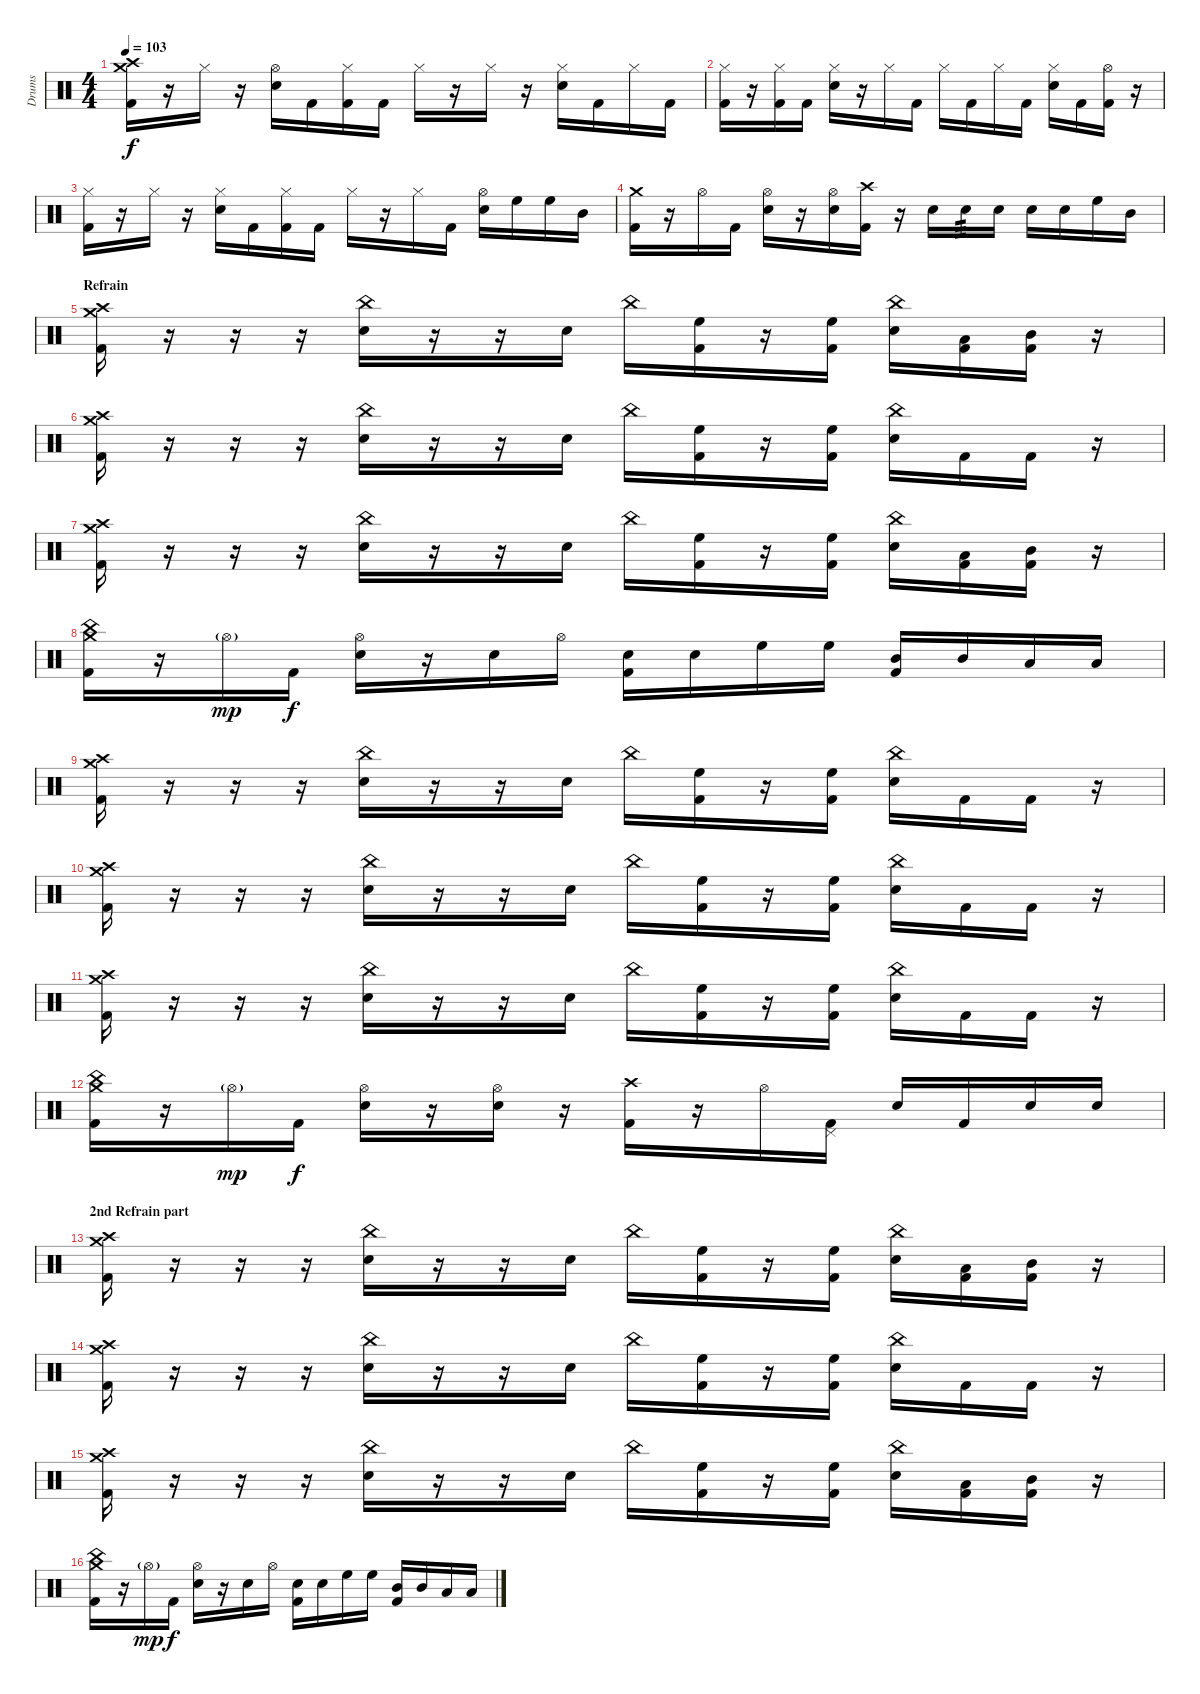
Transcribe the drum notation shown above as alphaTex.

\track ("Drums" "Drums") {instrument percussion}
\staff {score}
\articulation defaults
\ts (4 4)
\tempo 103
\clef neutral
\ks c
("Crash high (hit)" "Crash medium (hit)" "Kick (hit) 2").16{dy f} r.16 "Hi-Hat (closed)".16 r.16 ("Hi-Hat (open)" "Snare (hit) 2").16 "Kick (hit) 2".16 ("Hi-Hat (closed)" "Kick (hit) 2").16 "Kick (hit) 2".16 "Hi-Hat (closed)".16 r.16 "Hi-Hat (closed)".16 r.16 ("Hi-Hat (closed)" "Snare (hit) 2").16 "Kick (hit) 2".16 "Hi-Hat (closed)".16 "Kick (hit) 2".16 |
("Hi-Hat (closed)" "Kick (hit) 2").16 r.16 ("Hi-Hat (closed)" "Kick (hit) 2").16 "Kick (hit) 2".16 ("Hi-Hat (closed)" "Snare (hit) 2").16 r.16 "Hi-Hat (closed)".16 "Kick (hit) 2".16 "Hi-Hat (closed)".16 "Kick (hit) 2".16 "Hi-Hat (closed)".16 "Kick (hit) 2".16 ("Hi-Hat (closed)" "Snare (hit) 2").16 "Kick (hit) 2".16 ("Hi-Hat (open)" "Kick (hit) 2").16 r.16 |
("Hi-Hat (closed)" "Kick (hit) 2").16 r.16 "Hi-Hat (closed)".16 r.16 ("Hi-Hat (closed)" "Snare (hit) 2").16 "Kick (hit) 2".16 ("Hi-Hat (closed)" "Kick (hit) 2").16 "Kick (hit) 2".16 "Hi-Hat (closed)".16 r.16 "Hi-Hat (closed)".16 "Kick (hit) 2".16 ("Hi-Hat (open)" "Snare (hit) 2").16 "High Floor Tom (hit)".16 "High Floor Tom (hit)".16 "Mid Tom (hit)".16 |
("Crash medium (hit)" "Kick (hit) 2").16 r.16 "Hi-Hat (open)".16 "Kick (hit) 2".16 ("Hi-Hat (open)" "Snare (hit) 2").16 r.16 ("Hi-Hat (open)" "Snare (hit) 2").16 ("Crash high (hit)" "Kick (hit) 2").16 r.16 "Snare (hit) 2".16 "Snare (hit) 2".16{tp 3} "Snare (hit) 2".16 "Snare (hit) 2".16 "Snare (hit) 2".16 "High Floor Tom (hit)".16 "Mid Tom (hit)".16 |
\section ("" "Refrain")
("Crash medium (hit)" "Crash high (hit)" "Kick (hit) 2").16 r.16 r.16 r.16 ("China (hit)" "Snare (hit) 2").16 r.16 r.16 "Snare (hit) 2".16 "China (hit)".16 ("High Floor Tom (hit)" "Kick (hit) 2").16 r.16 ("High Floor Tom (hit)" "Kick (hit) 2").16 ("China (hit)" "Snare (hit) 2").16 ("Low Tom (hit)" "Kick (hit) 2").16 ("Mid Tom (hit)" "Kick (hit) 2").16 r.16 |
("Crash medium (hit)" "Crash high (hit)" "Kick (hit) 2").16 r.16 r.16 r.16 ("China (hit)" "Snare (hit) 2").16 r.16 r.16 "Snare (hit) 2".16 "China (hit)".16 ("High Floor Tom (hit)" "Kick (hit) 2").16 r.16 ("High Floor Tom (hit)" "Kick (hit) 2").16 ("China (hit)" "Snare (hit) 2").16 "Kick (hit) 2".16 "Kick (hit) 2".16 r.16 |
("Crash medium (hit)" "Crash high (hit)" "Kick (hit) 2").16 r.16 r.16 r.16 ("China (hit)" "Snare (hit) 2").16 r.16 r.16 "Snare (hit) 2".16 "China (hit)".16 ("High Floor Tom (hit)" "Kick (hit) 2").16 r.16 ("High Floor Tom (hit)" "Kick (hit) 2").16 ("China (hit)" "Snare (hit) 2").16 ("Low Tom (hit)" "Kick (hit) 2").16 ("Mid Tom (hit)" "Kick (hit) 2").16 r.16 |
("Crash medium (hit)" "China (hit)" "Kick (hit) 2").16 r.16 "Hi-Hat (open)"{g}.16{dy mp} "Kick (hit) 2".16{dy f} ("Hi-Hat (open)" "Snare (hit) 2").16 r.16 "Snare (hit) 2".16 "Hi-Hat (open)".16 ("Snare (hit) 2" "Kick (hit) 2").16 "Snare (hit) 2".16 "High Floor Tom (hit)".16 "High Floor Tom (hit)".16 ("Mid Tom (hit)" "Kick (hit) 2").16 "Mid Tom (hit)".16 "Low Tom (hit)".16 "Low Tom (hit)".16 |
("Crash medium (hit)" "Crash high (hit)" "Kick (hit) 2").16 r.16 r.16 r.16 ("China (hit)" "Snare (hit) 2").16 r.16 r.16 "Snare (hit) 2".16 "China (hit)".16 ("High Floor Tom (hit)" "Kick (hit) 2").16 r.16 ("High Floor Tom (hit)" "Kick (hit) 2").16 ("China (hit)" "Snare (hit) 2").16 "Kick (hit) 2".16 "Kick (hit) 2".16 r.16 |
("Crash medium (hit)" "Crash high (hit)" "Kick (hit) 2").16 r.16 r.16 r.16 ("China (hit)" "Snare (hit) 2").16 r.16 r.16 "Snare (hit) 2".16 "China (hit)".16 ("High Floor Tom (hit)" "Kick (hit) 2").16 r.16 ("High Floor Tom (hit)" "Kick (hit) 2").16 ("China (hit)" "Snare (hit) 2").16 "Kick (hit) 2".16 "Kick (hit) 2".16 r.16 |
("Crash medium (hit)" "Crash high (hit)" "Kick (hit) 2").16 r.16 r.16 r.16 ("China (hit)" "Snare (hit) 2").16 r.16 r.16 "Snare (hit) 2".16 "China (hit)".16 ("High Floor Tom (hit)" "Kick (hit) 2").16 r.16 ("High Floor Tom (hit)" "Kick (hit) 2").16 ("China (hit)" "Snare (hit) 2").16 "Kick (hit) 2".16 "Kick (hit) 2".16 r.16 |
("Crash medium (hit)" "China (hit)" "Kick (hit) 2").16 r.16 "Hi-Hat (open)"{g}.16{dy mp} "Kick (hit) 2".16{dy f} ("Hi-Hat (open)" "Snare (hit) 2").16 r.16 ("Hi-Hat (open)" "Snare (hit) 2").16 r.16 ("Crash high (hit)" "Kick (hit) 2").16 r.16 "Hi-Hat (open)".16 ("Pedal Hi-Hat (hit)" "Kick (hit) 2").16 "Snare (hit) 2".16 "Kick (hit) 2".16 "Snare (hit) 2".16 "Snare (hit) 2".16 |
\section ("" "2nd Refrain part")
("Crash medium (hit)" "Crash high (hit)" "Kick (hit) 2").16 r.16 r.16 r.16 ("China (hit)" "Snare (hit) 2").16 r.16 r.16 "Snare (hit) 2".16 "China (hit)".16 ("High Floor Tom (hit)" "Kick (hit) 2").16 r.16 ("High Floor Tom (hit)" "Kick (hit) 2").16 ("China (hit)" "Snare (hit) 2").16 ("Low Tom (hit)" "Kick (hit) 2").16 ("Mid Tom (hit)" "Kick (hit) 2").16 r.16 |
("Crash medium (hit)" "Crash high (hit)" "Kick (hit) 2").16 r.16 r.16 r.16 ("China (hit)" "Snare (hit) 2").16 r.16 r.16 "Snare (hit) 2".16 "China (hit)".16 ("High Floor Tom (hit)" "Kick (hit) 2").16 r.16 ("High Floor Tom (hit)" "Kick (hit) 2").16 ("China (hit)" "Snare (hit) 2").16 "Kick (hit) 2".16 "Kick (hit) 2".16 r.16 |
("Crash medium (hit)" "Crash high (hit)" "Kick (hit) 2").16 r.16 r.16 r.16 ("China (hit)" "Snare (hit) 2").16 r.16 r.16 "Snare (hit) 2".16 "China (hit)".16 ("High Floor Tom (hit)" "Kick (hit) 2").16 r.16 ("High Floor Tom (hit)" "Kick (hit) 2").16 ("China (hit)" "Snare (hit) 2").16 ("Low Tom (hit)" "Kick (hit) 2").16 ("Mid Tom (hit)" "Kick (hit) 2").16 r.16 |
("Crash medium (hit)" "China (hit)" "Kick (hit) 2").16 r.16 "Hi-Hat (open)"{g}.16{dy mp} "Kick (hit) 2".16{dy f} ("Hi-Hat (open)" "Snare (hit) 2").16 r.16 "Snare (hit) 2".16 "Hi-Hat (open)".16 ("Snare (hit) 2" "Kick (hit) 2").16 "Snare (hit) 2".16 "High Floor Tom (hit)".16 "High Floor Tom (hit)".16 ("Mid Tom (hit)" "Kick (hit) 2").16 "Mid Tom (hit)".16 "Low Tom (hit)".16 "Low Tom (hit)".16
